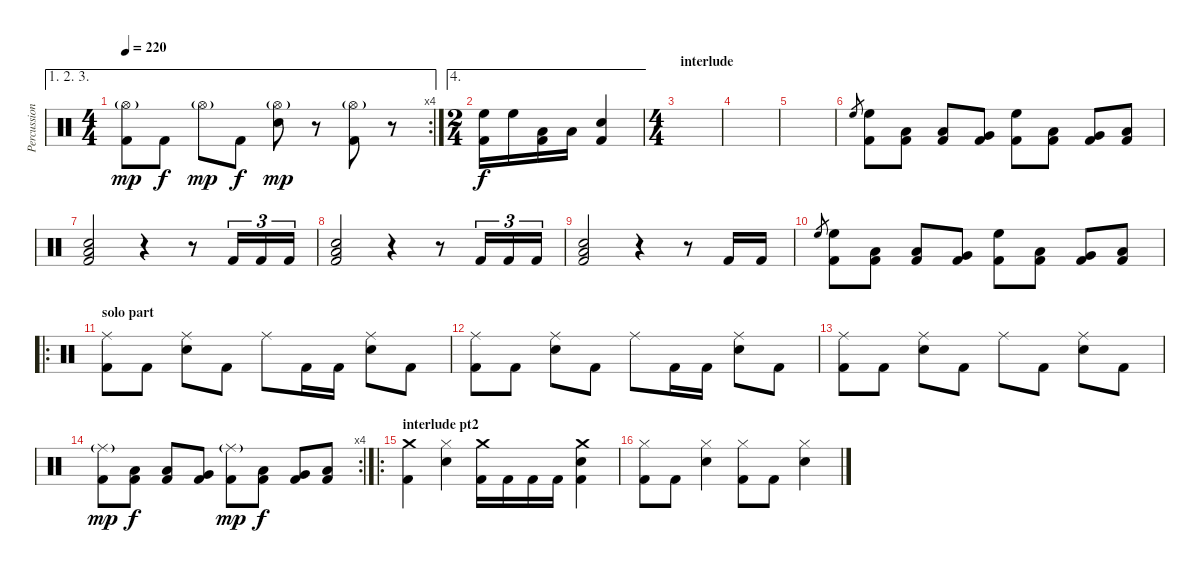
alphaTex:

\track ("Percussion" "Percussion") {instrument percussion}
\staff {score}
\articulation defaults
\ae (1 2 3)
\rc 4
\ts (4 4)
\tempo 220
\clef neutral
\ks c
("Hi-Hat (open)"{g} "Kick (hit) 2").8{dy mp} "Kick (hit) 2".8{dy f} "Hi-Hat (open)"{g}.8{dy mp} "Kick (hit) 2".8{dy f} ("Hi-Hat (open)"{g} "Electric Snare (hit)").8{dy mp} r.8 ("Hi-Hat (open)"{g} "Kick (hit) 2").8 r.8 |
\ae 4
\ts (2 4)
("High Floor Tom (hit)" "Kick (hit) 2").16{dy f} "High Floor Tom (hit)".16 ("Low Tom (hit)" "Kick (hit) 2").16 "Low Tom (hit)".16 ("Electric Snare (hit)" "Kick (hit) 2").4 |
\ts (4 4)
\section ("" "interlude")
|
|
|
"High Floor Tom (hit)".8{gr} ("High Floor Tom (hit)" "Kick (hit) 2").8 ("Low Tom (hit)" "Kick (hit) 2").8 ("Low Tom (hit)" "Kick (hit) 2").8 ("Very Low Tom (hit)" "Kick (hit) 2").8 ("High Floor Tom (hit)" "Kick (hit) 2").8 ("Low Tom (hit)" "Kick (hit) 2").8 ("Very Low Tom (hit)" "Kick (hit) 2").8 ("Low Floor Tom (hit)" "Kick (hit) 2").8 |
("Electric Snare (hit)" "Low Floor Tom (hit)" "Kick (hit) 2").2 r.4 r.8 "Kick (hit) 2".16{tu (3 2)} "Kick (hit) 2".16{tu (3 2)} "Kick (hit) 2".16{tu (3 2)} |
("Electric Snare (hit)" "Low Floor Tom (hit)" "Kick (hit) 2").2 r.4 r.8 "Kick (hit) 2".16{tu (3 2)} "Kick (hit) 2".16{tu (3 2)} "Kick (hit) 2".16{tu (3 2)} |
("Electric Snare (hit)" "Low Floor Tom (hit)" "Kick (hit) 2").2 r.4 r.8 "Kick (hit) 2".16 "Kick (hit) 2".16 |
"High Floor Tom (hit)".8{gr} ("High Floor Tom (hit)" "Kick (hit) 2").8 ("Low Tom (hit)" "Kick (hit) 2").8 ("Low Tom (hit)" "Kick (hit) 2").8 ("Very Low Tom (hit)" "Kick (hit) 2").8 ("High Floor Tom (hit)" "Kick (hit) 2").8 ("Low Tom (hit)" "Kick (hit) 2").8 ("Very Low Tom (hit)" "Kick (hit) 2").8 ("Low Floor Tom (hit)" "Kick (hit) 2").8 |
\ro
\section ("" "solo part ")
("Ride (middle)" "Kick (hit) 2").8 "Kick (hit) 2".8 ("Ride (middle)" "Electric Snare (hit)").8 "Kick (hit) 2".8 "Ride (middle)".8 "Kick (hit) 2".16 "Kick (hit) 2".16 ("Ride (middle)" "Electric Snare (hit)").8 "Kick (hit) 2".8 |
("Ride (middle)" "Kick (hit) 2").8 "Kick (hit) 2".8 ("Ride (middle)" "Electric Snare (hit)").8 "Kick (hit) 2".8 "Ride (middle)".8 "Kick (hit) 2".16 "Kick (hit) 2".16 ("Ride (middle)" "Electric Snare (hit)").8 "Kick (hit) 2".8 |
("Ride (middle)" "Kick (hit) 2").8 "Kick (hit) 2".8 ("Ride (middle)" "Electric Snare (hit)").8 "Kick (hit) 2".8 "Ride (middle)".8 "Kick (hit) 2".8 ("Ride (middle)" "Electric Snare (hit)").8 "Kick (hit) 2".8 |
\rc 4
("Ride (middle)"{g} "Kick (hit) 2").8{dy mp} ("Low Tom (hit)" "Kick (hit) 2").8{dy f} ("Low Tom (hit)" "Kick (hit) 2").8 ("Very Low Tom (hit)" "Kick (hit) 2").8 ("Ride (middle)"{g} "Kick (hit) 2").8{dy mp} ("Low Tom (hit)" "Kick (hit) 2").8{dy f} ("Very Low Tom (hit)" "Kick (hit) 2").8 ("Low Floor Tom (hit)" "Kick (hit) 2").8 |
\ro
\section ("" "interlude pt2")
("Crash medium (hit)" "Kick (hit) 2").4 ("Hi-Hat (closed)" "Electric Snare (hit)").4 ("Crash medium (hit)" "Kick (hit) 2").16 "Kick (hit) 2".16 "Kick (hit) 2".16 "Kick (hit) 2".16 ("Crash medium (hit)" "Electric Snare (hit)" "Kick (hit) 2").4 |
("Hi-Hat (closed)" "Kick (hit) 2").8 "Kick (hit) 2".8 ("Hi-Hat (closed)" "Electric Snare (hit)").4 ("Hi-Hat (closed)" "Kick (hit) 2").8 "Kick (hit) 2".8 ("Hi-Hat (closed)" "Electric Snare (hit)").4
